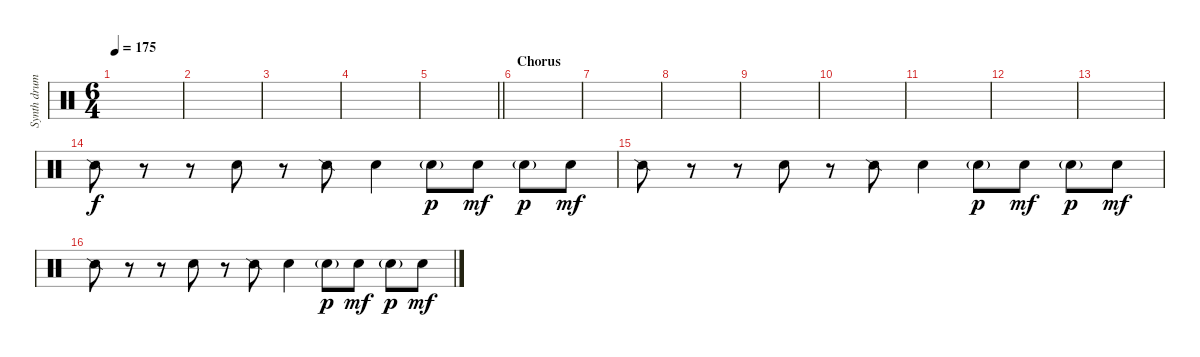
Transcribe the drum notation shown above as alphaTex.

\track ("Synth drums" "Synth drum") {instrument percussion}
\staff {score}
\articulation defaults
\ts (6 4)
\tempo 175
\clef neutral
\ks c
|
|
|
|
\barLineRight lightlight
|
\section ("" "Chorus")
|
|
|
|
|
|
|
|
"Snare (side stick) 2".8 r.8 r.8 "Hand Clap (hit)".8 r.8 "Snare (side stick) 2".8 "Hand Clap (hit)".4 "Hand Clap (hit)"{g}.8{dy p} "Hand Clap (hit)".8{dy mf} "Hand Clap (hit)"{g}.8{dy p} "Hand Clap (hit)".8{dy mf} |
"Snare (side stick) 2".8 r.8 r.8 "Hand Clap (hit)".8 r.8 "Snare (side stick) 2".8 "Hand Clap (hit)".4 "Hand Clap (hit)"{g}.8{dy p} "Hand Clap (hit)".8{dy mf} "Hand Clap (hit)"{g}.8{dy p} "Hand Clap (hit)".8{dy mf} |
"Snare (side stick) 2".8 r.8 r.8 "Hand Clap (hit)".8 r.8 "Snare (side stick) 2".8 "Hand Clap (hit)".4 "Hand Clap (hit)"{g}.8{dy p} "Hand Clap (hit)".8{dy mf} "Hand Clap (hit)"{g}.8{dy p} "Hand Clap (hit)".8{dy mf}
